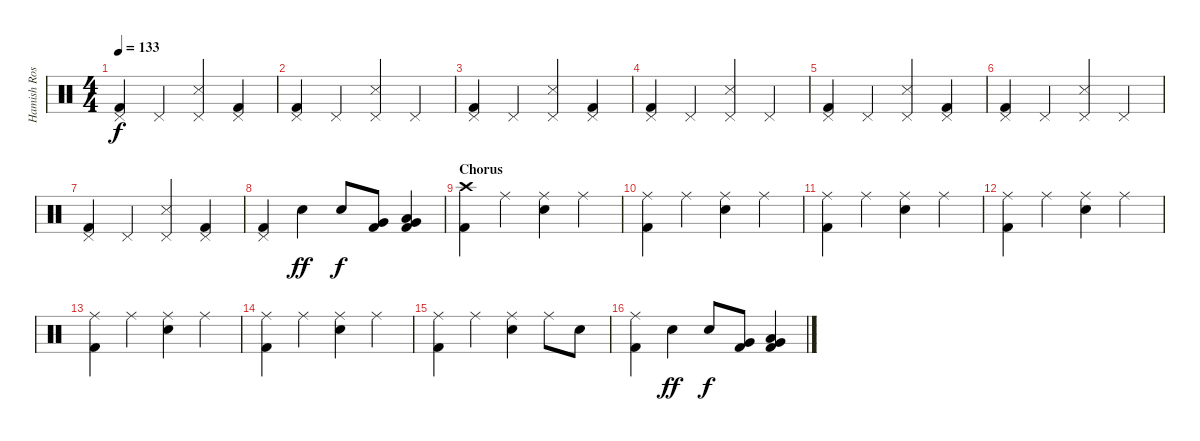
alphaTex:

\track ("Hamish Rosser" "Hamish Ros") {instrument percussion}
\staff {score}
\articulation defaults
\ts (4 4)
\tempo 133
\clef neutral
\ks c
("Pedal Hi-Hat (hit)" "Kick (hit) 2").4{dy f} "Pedal Hi-Hat (hit)".4 ("Pedal Hi-Hat (hit)" "Snare (side stick) 3").4 ("Pedal Hi-Hat (hit)" "Kick (hit) 2").4 |
("Pedal Hi-Hat (hit)" "Kick (hit) 2").4 "Pedal Hi-Hat (hit)".4 ("Pedal Hi-Hat (hit)" "Snare (side stick) 3").4 "Pedal Hi-Hat (hit)".4 |
("Pedal Hi-Hat (hit)" "Kick (hit) 2").4 "Pedal Hi-Hat (hit)".4 ("Pedal Hi-Hat (hit)" "Snare (side stick) 3").4 ("Pedal Hi-Hat (hit)" "Kick (hit) 2").4 |
("Pedal Hi-Hat (hit)" "Kick (hit) 2").4 "Pedal Hi-Hat (hit)".4 ("Pedal Hi-Hat (hit)" "Snare (side stick) 3").4 "Pedal Hi-Hat (hit)".4 |
("Pedal Hi-Hat (hit)" "Kick (hit) 2").4 "Pedal Hi-Hat (hit)".4 ("Pedal Hi-Hat (hit)" "Snare (side stick) 3").4 ("Pedal Hi-Hat (hit)" "Kick (hit) 2").4 |
("Pedal Hi-Hat (hit)" "Kick (hit) 2").4 "Pedal Hi-Hat (hit)".4 ("Pedal Hi-Hat (hit)" "Snare (side stick) 3").4 "Pedal Hi-Hat (hit)".4 |
("Pedal Hi-Hat (hit)" "Kick (hit) 2").4 "Pedal Hi-Hat (hit)".4 ("Pedal Hi-Hat (hit)" "Snare (side stick) 3").4 ("Pedal Hi-Hat (hit)" "Kick (hit) 2").4 |
("Pedal Hi-Hat (hit)" "Kick (hit) 2").4 "Electric Snare (hit)".4{dy ff} "Electric Snare (hit)".8{dy f} ("Very Low Tom (hit)" "Kick (hit) 2").8 ("Low Tom (hit)" "Very Low Tom (hit)" "Kick (hit) 2").4 |
\section ("" "Chorus")
("Crash high (hit)" "Kick (hit) 2").4 "Ride (middle)".4 ("Ride (middle)" "Electric Snare (hit)").4 "Ride (middle)".4 |
("Ride (middle)" "Kick (hit) 2").4 "Ride (middle)".4 ("Ride (middle)" "Electric Snare (hit)").4 "Ride (middle)".4 |
("Ride (middle)" "Kick (hit) 2").4 "Ride (middle)".4 ("Ride (middle)" "Electric Snare (hit)").4 "Ride (middle)".4 |
("Ride (middle)" "Kick (hit) 2").4 "Ride (middle)".4 ("Ride (middle)" "Electric Snare (hit)").4 "Ride (middle)".4 |
("Ride (middle)" "Kick (hit) 2").4 "Ride (middle)".4 ("Ride (middle)" "Electric Snare (hit)").4 "Ride (middle)".4 |
("Ride (middle)" "Kick (hit) 2").4 "Ride (middle)".4 ("Ride (middle)" "Electric Snare (hit)").4 "Ride (middle)".4 |
("Ride (middle)" "Kick (hit) 2").4 "Ride (middle)".4 ("Ride (middle)" "Electric Snare (hit)").4 "Ride (middle)".8 "Electric Snare (hit)".8 |
("Ride (middle)" "Kick (hit) 2").4 "Electric Snare (hit)".4{dy ff} "Electric Snare (hit)".8{dy f} ("Very Low Tom (hit)" "Kick (hit) 2").8 ("Low Tom (hit)" "Very Low Tom (hit)" "Kick (hit) 2").4
